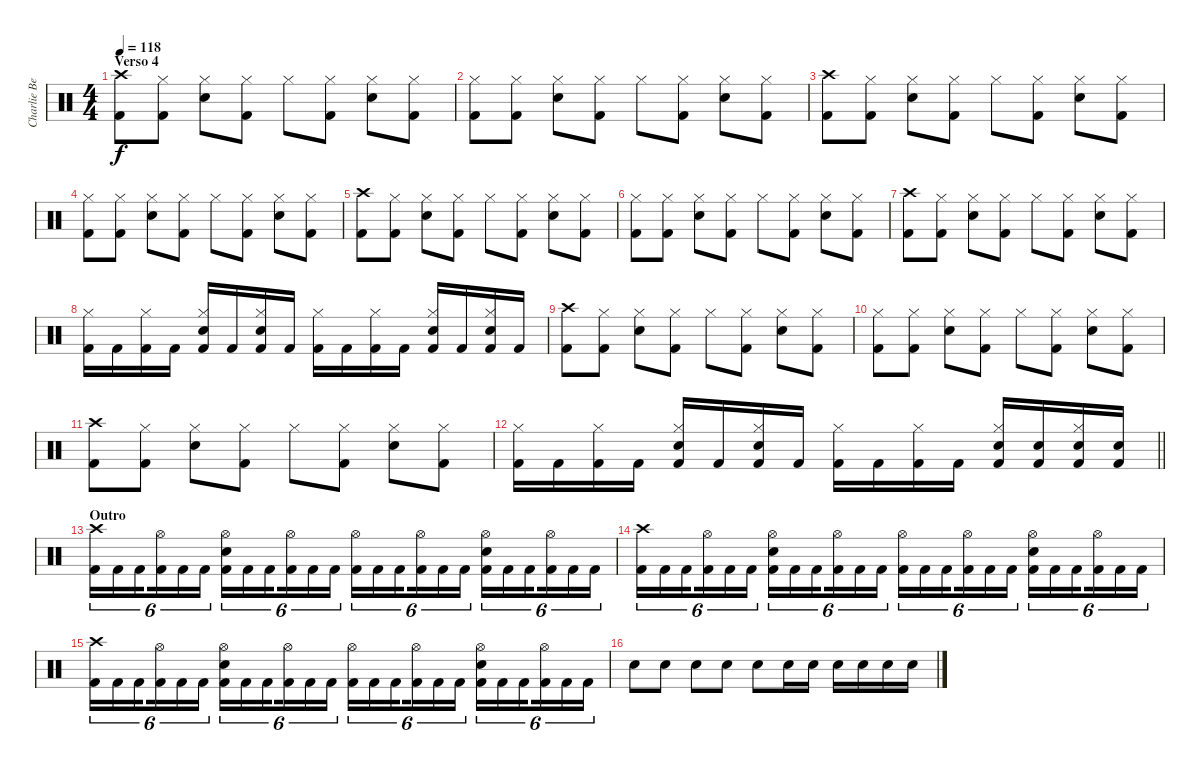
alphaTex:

\track ("Charlie Benante" "Charlie Be") {instrument percussion}
\staff {score}
\articulation defaults
\ts (4 4)
\section ("" "Verso 4")
\tempo 118
\clef neutral
\ks c
("Crash high (hit)" "Kick (hit) 2").8{dy f} ("Hi-Hat (closed)" "Kick (hit) 2").8 ("Hi-Hat (closed)" "Snare (hit) 2").8 ("Hi-Hat (closed)" "Kick (hit) 2").8 "Hi-Hat (closed)".8 ("Hi-Hat (closed)" "Kick (hit) 2").8 ("Hi-Hat (closed)" "Snare (hit) 2").8 ("Hi-Hat (closed)" "Kick (hit) 2").8 |
("Hi-Hat (closed)" "Kick (hit) 2").8 ("Hi-Hat (closed)" "Kick (hit) 2").8 ("Hi-Hat (closed)" "Snare (hit) 2").8 ("Hi-Hat (closed)" "Kick (hit) 2").8 "Hi-Hat (closed)".8 ("Hi-Hat (closed)" "Kick (hit) 2").8 ("Hi-Hat (closed)" "Snare (hit) 2").8 ("Hi-Hat (closed)" "Kick (hit) 2").8 |
("Crash high (hit)" "Kick (hit) 2").8 ("Hi-Hat (closed)" "Kick (hit) 2").8 ("Hi-Hat (closed)" "Snare (hit) 2").8 ("Hi-Hat (closed)" "Kick (hit) 2").8 "Hi-Hat (closed)".8 ("Hi-Hat (closed)" "Kick (hit) 2").8 ("Hi-Hat (closed)" "Snare (hit) 2").8 ("Hi-Hat (closed)" "Kick (hit) 2").8 |
("Hi-Hat (closed)" "Kick (hit) 2").8 ("Hi-Hat (closed)" "Kick (hit) 2").8 ("Hi-Hat (closed)" "Snare (hit) 2").8 ("Hi-Hat (closed)" "Kick (hit) 2").8 "Hi-Hat (closed)".8 ("Hi-Hat (closed)" "Kick (hit) 2").8 ("Hi-Hat (closed)" "Snare (hit) 2").8 ("Hi-Hat (closed)" "Kick (hit) 2").8 |
("Crash high (hit)" "Kick (hit) 2").8 ("Hi-Hat (closed)" "Kick (hit) 2").8 ("Hi-Hat (closed)" "Snare (hit) 2").8 ("Hi-Hat (closed)" "Kick (hit) 2").8 "Hi-Hat (closed)".8 ("Hi-Hat (closed)" "Kick (hit) 2").8 ("Hi-Hat (closed)" "Snare (hit) 2").8 ("Hi-Hat (closed)" "Kick (hit) 2").8 |
("Hi-Hat (closed)" "Kick (hit) 2").8 ("Hi-Hat (closed)" "Kick (hit) 2").8 ("Hi-Hat (closed)" "Snare (hit) 2").8 ("Hi-Hat (closed)" "Kick (hit) 2").8 "Hi-Hat (closed)".8 ("Hi-Hat (closed)" "Kick (hit) 2").8 ("Hi-Hat (closed)" "Snare (hit) 2").8 ("Hi-Hat (closed)" "Kick (hit) 2").8 |
("Crash high (hit)" "Kick (hit) 2").8 ("Hi-Hat (closed)" "Kick (hit) 2").8 ("Hi-Hat (closed)" "Snare (hit) 2").8 ("Hi-Hat (closed)" "Kick (hit) 2").8 "Hi-Hat (closed)".8 ("Hi-Hat (closed)" "Kick (hit) 2").8 ("Hi-Hat (closed)" "Snare (hit) 2").8 ("Hi-Hat (closed)" "Kick (hit) 2").8 |
("Hi-Hat (closed)" "Kick (hit) 2").16 "Kick (hit) 2".16 ("Hi-Hat (closed)" "Kick (hit) 2").16 "Kick (hit) 2".16 ("Hi-Hat (closed)" "Snare (hit) 2" "Kick (hit) 2").16 "Kick (hit) 2".16 ("Hi-Hat (closed)" "Snare (hit) 2" "Kick (hit) 2").16 "Kick (hit) 2".16 ("Hi-Hat (closed)" "Kick (hit) 2").16 "Kick (hit) 2".16 ("Hi-Hat (closed)" "Kick (hit) 2").16 "Kick (hit) 2".16 ("Hi-Hat (closed)" "Snare (hit) 2" "Kick (hit) 2").16 "Kick (hit) 2".16 ("Hi-Hat (closed)" "Snare (hit) 2" "Kick (hit) 2").16 "Kick (hit) 2".16 |
("Crash high (hit)" "Kick (hit) 2").8 ("Hi-Hat (closed)" "Kick (hit) 2").8 ("Hi-Hat (closed)" "Snare (hit) 2").8 ("Hi-Hat (closed)" "Kick (hit) 2").8 "Hi-Hat (closed)".8 ("Hi-Hat (closed)" "Kick (hit) 2").8 ("Hi-Hat (closed)" "Snare (hit) 2").8 ("Hi-Hat (closed)" "Kick (hit) 2").8 |
("Hi-Hat (closed)" "Kick (hit) 2").8 ("Hi-Hat (closed)" "Kick (hit) 2").8 ("Hi-Hat (closed)" "Snare (hit) 2").8 ("Hi-Hat (closed)" "Kick (hit) 2").8 "Hi-Hat (closed)".8 ("Hi-Hat (closed)" "Kick (hit) 2").8 ("Hi-Hat (closed)" "Snare (hit) 2").8 ("Hi-Hat (closed)" "Kick (hit) 2").8 |
("Crash high (hit)" "Kick (hit) 2").8 ("Hi-Hat (closed)" "Kick (hit) 2").8 ("Hi-Hat (closed)" "Snare (hit) 2").8 ("Hi-Hat (closed)" "Kick (hit) 2").8 "Hi-Hat (closed)".8 ("Hi-Hat (closed)" "Kick (hit) 2").8 ("Hi-Hat (closed)" "Snare (hit) 2").8 ("Hi-Hat (closed)" "Kick (hit) 2").8 |
\barLineRight lightlight
("Hi-Hat (closed)" "Kick (hit) 2").16 "Kick (hit) 2".16 ("Hi-Hat (closed)" "Kick (hit) 2").16 "Kick (hit) 2".16 ("Hi-Hat (closed)" "Snare (hit) 2" "Kick (hit) 2").16 "Kick (hit) 2".16 ("Hi-Hat (closed)" "Snare (hit) 2" "Kick (hit) 2").16 "Kick (hit) 2".16 ("Hi-Hat (closed)" "Kick (hit) 2").16 "Kick (hit) 2".16 ("Hi-Hat (closed)" "Kick (hit) 2").16 "Kick (hit) 2".16 ("Hi-Hat (closed)" "Snare (hit) 2" "Kick (hit) 2").16 ("Snare (hit) 2" "Kick (hit) 2").16 ("Hi-Hat (closed)" "Snare (hit) 2" "Kick (hit) 2").16 ("Snare (hit) 2" "Kick (hit) 2").16 |
\section ("" "Outro")
("Crash high (hit)" "Kick (hit) 2").16{tu (6 4)} "Kick (hit) 2".16{tu (6 4)} "Kick (hit) 2".16{tu (6 4) beam splitsecondary} ("Hi-Hat (open)" "Kick (hit) 2").16{tu (6 4)} "Kick (hit) 2".16{tu (6 4)} "Kick (hit) 2".16{tu (6 4)} ("Hi-Hat (open)" "Snare (hit) 2" "Kick (hit) 2").16{tu (6 4)} "Kick (hit) 2".16{tu (6 4)} "Kick (hit) 2".16{tu (6 4) beam splitsecondary} ("Hi-Hat (open)" "Kick (hit) 2").16{tu (6 4)} "Kick (hit) 2".16{tu (6 4)} "Kick (hit) 2".16{tu (6 4)} ("Hi-Hat (open)" "Kick (hit) 2").16{tu (6 4)} "Kick (hit) 2".16{tu (6 4)} "Kick (hit) 2".16{tu (6 4) beam splitsecondary} ("Hi-Hat (open)" "Kick (hit) 2").16{tu (6 4)} "Kick (hit) 2".16{tu (6 4)} "Kick (hit) 2".16{tu (6 4)} ("Hi-Hat (open)" "Snare (hit) 2" "Kick (hit) 2").16{tu (6 4)} "Kick (hit) 2".16{tu (6 4)} "Kick (hit) 2".16{tu (6 4) beam splitsecondary} ("Hi-Hat (open)" "Kick (hit) 2").16{tu (6 4)} "Kick (hit) 2".16{tu (6 4)} "Kick (hit) 2".16{tu (6 4)} |
("Crash high (hit)" "Kick (hit) 2").16{tu (6 4)} "Kick (hit) 2".16{tu (6 4)} "Kick (hit) 2".16{tu (6 4) beam splitsecondary} ("Hi-Hat (open)" "Kick (hit) 2").16{tu (6 4)} "Kick (hit) 2".16{tu (6 4)} "Kick (hit) 2".16{tu (6 4)} ("Hi-Hat (open)" "Snare (hit) 2" "Kick (hit) 2").16{tu (6 4)} "Kick (hit) 2".16{tu (6 4)} "Kick (hit) 2".16{tu (6 4) beam splitsecondary} ("Hi-Hat (open)" "Kick (hit) 2").16{tu (6 4)} "Kick (hit) 2".16{tu (6 4)} "Kick (hit) 2".16{tu (6 4)} ("Hi-Hat (open)" "Kick (hit) 2").16{tu (6 4)} "Kick (hit) 2".16{tu (6 4)} "Kick (hit) 2".16{tu (6 4) beam splitsecondary} ("Hi-Hat (open)" "Kick (hit) 2").16{tu (6 4)} "Kick (hit) 2".16{tu (6 4)} "Kick (hit) 2".16{tu (6 4)} ("Hi-Hat (open)" "Snare (hit) 2" "Kick (hit) 2").16{tu (6 4)} "Kick (hit) 2".16{tu (6 4)} "Kick (hit) 2".16{tu (6 4) beam splitsecondary} ("Hi-Hat (open)" "Kick (hit) 2").16{tu (6 4)} "Kick (hit) 2".16{tu (6 4)} "Kick (hit) 2".16{tu (6 4)} |
("Crash high (hit)" "Kick (hit) 2").16{tu (6 4)} "Kick (hit) 2".16{tu (6 4)} "Kick (hit) 2".16{tu (6 4) beam splitsecondary} ("Hi-Hat (open)" "Kick (hit) 2").16{tu (6 4)} "Kick (hit) 2".16{tu (6 4)} "Kick (hit) 2".16{tu (6 4)} ("Hi-Hat (open)" "Snare (hit) 2" "Kick (hit) 2").16{tu (6 4)} "Kick (hit) 2".16{tu (6 4)} "Kick (hit) 2".16{tu (6 4) beam splitsecondary} ("Hi-Hat (open)" "Kick (hit) 2").16{tu (6 4)} "Kick (hit) 2".16{tu (6 4)} "Kick (hit) 2".16{tu (6 4)} ("Hi-Hat (open)" "Kick (hit) 2").16{tu (6 4)} "Kick (hit) 2".16{tu (6 4)} "Kick (hit) 2".16{tu (6 4) beam splitsecondary} ("Hi-Hat (open)" "Kick (hit) 2").16{tu (6 4)} "Kick (hit) 2".16{tu (6 4)} "Kick (hit) 2".16{tu (6 4)} ("Hi-Hat (open)" "Snare (hit) 2" "Kick (hit) 2").16{tu (6 4)} "Kick (hit) 2".16{tu (6 4)} "Kick (hit) 2".16{tu (6 4) beam splitsecondary} ("Hi-Hat (open)" "Kick (hit) 2").16{tu (6 4)} "Kick (hit) 2".16{tu (6 4)} "Kick (hit) 2".16{tu (6 4)} |
"Snare (hit) 2".8 "Snare (hit) 2".8 "Snare (hit) 2".8 "Snare (hit) 2".8 "Snare (hit) 2".8 "Snare (hit) 2".16 "Snare (hit) 2".16 "Snare (hit) 2".16 "Snare (hit) 2".16 "Snare (hit) 2".16 "Snare (hit) 2".16
